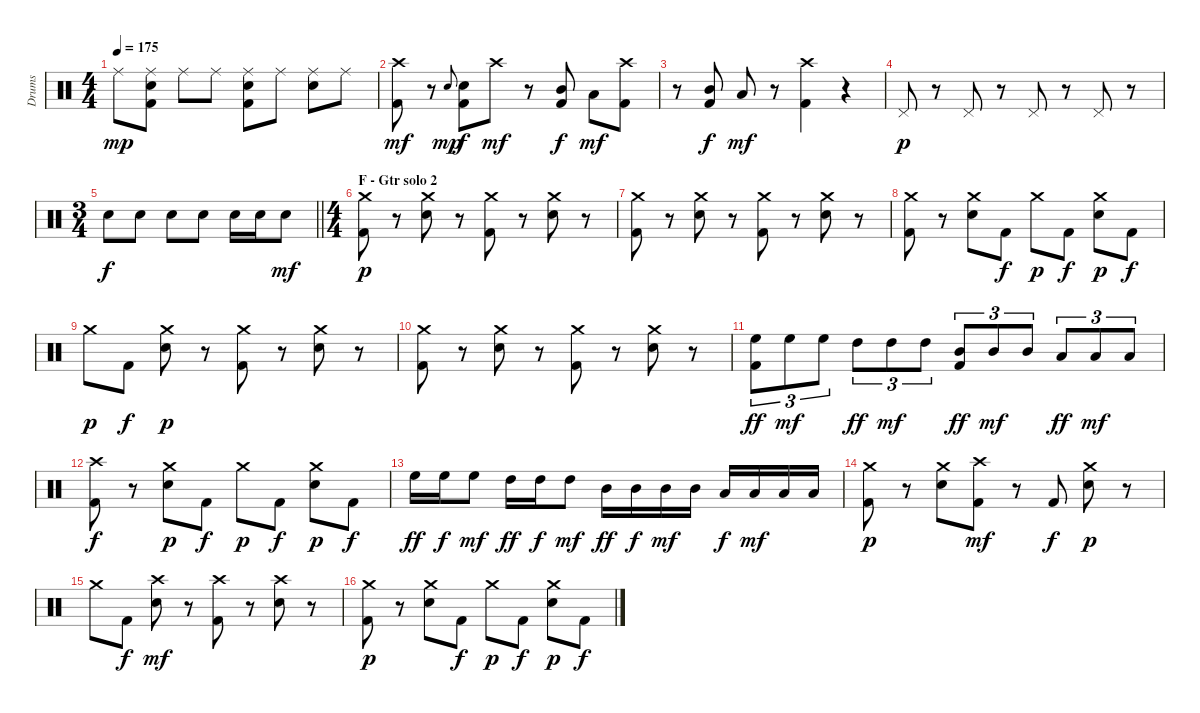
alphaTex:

\track ("Drums" "Drums") {instrument percussion}
\staff {score}
\articulation defaults
\ts (4 4)
\tempo 175
\clef neutral
\ks c "Ride (middle)".8{dy mp}
("Ride (middle)" "Electric Snare (hit)" "Kick (hit) 2").8 "Ride (middle)".8 "Ride (middle)".8 ("Ride (middle)" "Electric Snare (hit)" "Kick (hit) 2").8 "Ride (middle)".8 ("Ride (middle)" "Electric Snare (hit)").8 "Ride (middle)".8 |
("Crash high (hit)" "Kick (hit) 2").8{dy mf} r.8 "Electric Snare (hit)".8{gr onbeat dy mp} ("Electric Snare (hit)" "Kick (hit) 2").8{dy f} "Crash high (hit)".8{dy mf} r.8 ("Mid Tom (hit)" "Kick (hit) 2").8{dy f} "Low Tom (hit)".8{dy mf} ("Crash high (hit)" "Kick (hit) 2").8 |
r.8 ("Mid Tom (hit)" "Kick (hit) 2").8{dy f} "Low Tom (hit)".8{dy mf} r.8 ("Crash high (hit)" "Kick (hit) 2").4 r.4 |
"Pedal Hi-Hat (hit)".8{dy p} r.8 "Pedal Hi-Hat (hit)".8 r.8 "Pedal Hi-Hat (hit)".8 r.8 "Pedal Hi-Hat (hit)".8 r.8 |
\ts (3 4)
\barLineRight lightlight "Electric Snare (hit)".8{dy f} "Electric Snare (hit)".8 "Electric Snare (hit)".8 "Electric Snare (hit)".8 "Electric Snare (hit)".16 "Electric Snare (hit)".16 "Electric Snare (hit)".8{dy mf}
|
\ts (4 4)
\section ("" "F - Gtr solo 2")
("Crash medium (hit)" "Kick (hit) 2").8{dy p} r.8 ("Crash medium (hit)" "Electric Snare (hit)").8 r.8 ("Crash medium (hit)" "Kick (hit) 2").8 r.8 ("Crash medium (hit)" "Electric Snare (hit)").8 r.8 |
("Crash medium (hit)" "Kick (hit) 2").8 r.8 ("Crash medium (hit)" "Electric Snare (hit)").8 r.8 ("Crash medium (hit)" "Kick (hit) 2").8 r.8 ("Crash medium (hit)" "Electric Snare (hit)").8 r.8 |
("Crash medium (hit)" "Kick (hit) 2").8 r.8 ("Crash medium (hit)" "Electric Snare (hit)").8 "Kick (hit) 2".8{dy f} "Crash medium (hit)".8{dy p} "Kick (hit) 2".8{dy f} ("Crash medium (hit)" "Electric Snare (hit)").8{dy p} "Kick (hit) 2".8{dy f} |
"Crash medium (hit)".8{dy p} "Kick (hit) 2".8{dy f} ("Crash medium (hit)" "Electric Snare (hit)").8{dy p} r.8 ("Crash medium (hit)" "Kick (hit) 2").8 r.8 ("Crash medium (hit)" "Electric Snare (hit)").8 r.8 |
("Crash medium (hit)" "Kick (hit) 2").8 r.8 ("Crash medium (hit)" "Electric Snare (hit)").8 r.8 ("Crash medium (hit)" "Kick (hit) 2").8 r.8 ("Crash medium (hit)" "Electric Snare (hit)").8 r.8 |
("High Floor Tom (hit)" "Kick (hit) 2").8{tu (3 2) dy ff} "High Floor Tom (hit)".8{tu (3 2) dy mf} "High Floor Tom (hit)".8{tu (3 2)} "High Tom (hit)".8{tu (3 2) dy ff} "High Tom (hit)".8{tu (3 2) dy mf} "High Tom (hit)".8{tu (3 2)} ("Mid Tom (hit)" "Kick (hit) 2").8{tu (3 2) dy ff} "Mid Tom (hit)".8{tu (3 2) dy mf} "Mid Tom (hit)".8{tu (3 2)} "Low Tom (hit)".8{tu (3 2) dy ff} "Low Tom (hit)".8{tu (3 2) dy mf} "Low Tom (hit)".8{tu (3 2)} |
("Crash high (hit)" "Kick (hit) 2").8{dy f} r.8 ("Crash medium (hit)" "Electric Snare (hit)").8{dy p} "Kick (hit) 2".8{dy f} "Crash medium (hit)".8{dy p} "Kick (hit) 2".8{dy f} ("Crash medium (hit)" "Electric Snare (hit)").8{dy p} "Kick (hit) 2".8{dy f} |
"High Floor Tom (hit)".16{dy ff} "High Floor Tom (hit)".16{dy f} "High Floor Tom (hit)".8{dy mf} "High Tom (hit)".16{dy ff} "High Tom (hit)".16{dy f} "High Tom (hit)".8{dy mf} "Mid Tom (hit)".16{dy ff} "Mid Tom (hit)".16{dy f} "Mid Tom (hit)".16{dy mf} "Mid Tom (hit)".16 "Low Tom (hit)".16{dy f} "Low Tom (hit)".16{dy mf} "Low Tom (hit)".16 "Low Tom (hit)".16 |
("Crash medium (hit)" "Kick (hit) 2").8{dy p} r.8 ("Crash medium (hit)" "Electric Snare (hit)").8 ("Crash high (hit)" "Kick (hit) 2").8{dy mf} r.8 "Kick (hit) 2".8{dy f} ("Crash medium (hit)" "Electric Snare (hit)").8{dy p} r.8 |
"Crash medium (hit)".8 "Kick (hit) 2".8{dy f} ("Crash high (hit)" "Electric Snare (hit)").8{dy mf} r.8 ("Crash high (hit)" "Kick (hit) 2").8 r.8 ("Crash high (hit)" "Electric Snare (hit)").8 r.8 |
("Crash medium (hit)" "Kick (hit) 2").8{dy p} r.8 ("Crash medium (hit)" "Electric Snare (hit)").8 "Kick (hit) 2".8{dy f} "Crash medium (hit)".8{dy p} "Kick (hit) 2".8{dy f} ("Crash medium (hit)" "Electric Snare (hit)").8{dy p} "Kick (hit) 2".8{dy f}
